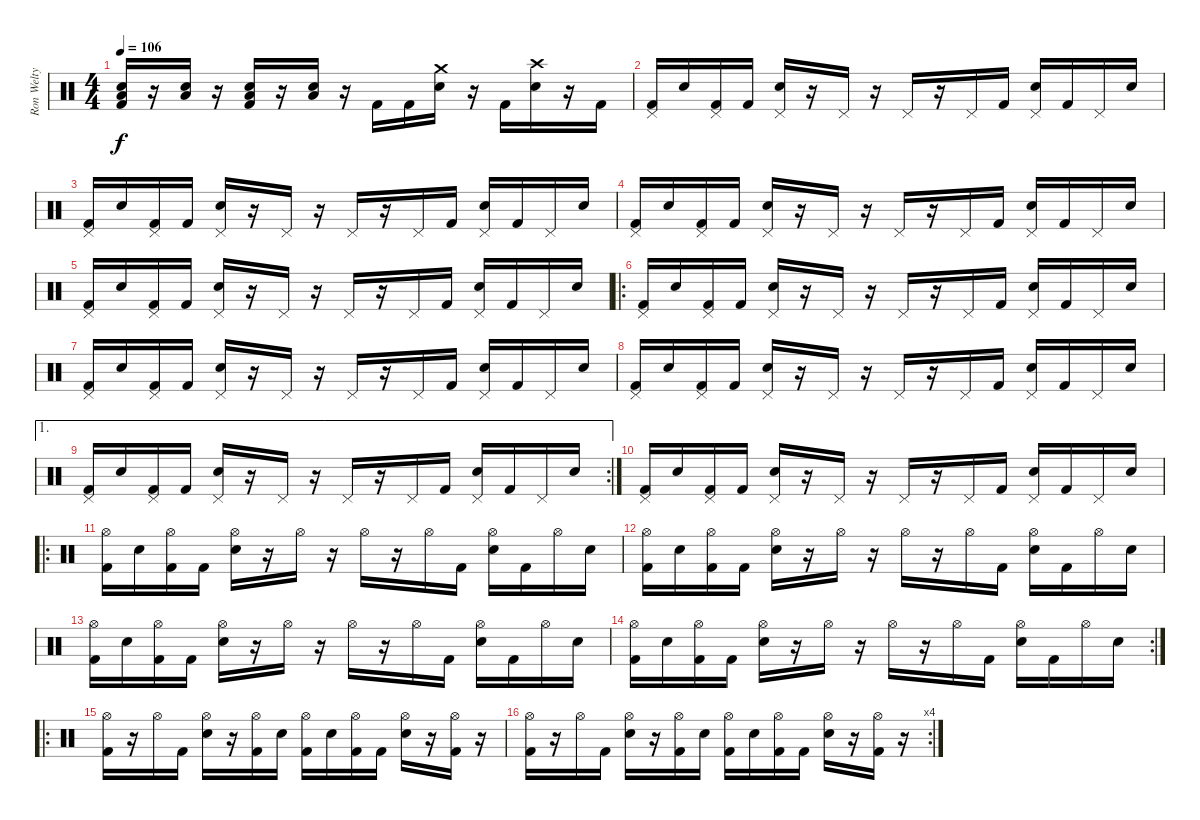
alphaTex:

\track ("Ron Welty - Drummer" "Ron Welty ") {instrument percussion}
\staff {score}
\articulation defaults
\ts (4 4)
\tempo 106
\clef neutral
\ks c
("Kick (hit) 2" "Low Floor Tom (hit)" "Electric Snare (hit)").16{dy f} r.16 ("Low Floor Tom (hit)" "Electric Snare (hit)").16 r.16 ("Kick (hit) 2" "Low Floor Tom (hit)" "Electric Snare (hit)").16 r.16 ("Low Floor Tom (hit)" "Electric Snare (hit)").16 r.16 "Kick (hit) 2".16 "Kick (hit) 2".16 ("Electric Snare (hit)" "Crash medium (hit)").16 r.16 "Kick (hit) 2".16 ("Electric Snare (hit)" "Crash high (hit)").16 r.16 "Kick (hit) 2".16 |
("Kick (hit) 2" "Pedal Hi-Hat (hit)").16 "Electric Snare (hit)".16 ("Kick (hit) 2" "Pedal Hi-Hat (hit)").16 "Kick (hit) 2".16 ("Electric Snare (hit)" "Pedal Hi-Hat (hit)").16 r.16 "Pedal Hi-Hat (hit)".16 r.16 "Pedal Hi-Hat (hit)".16 r.16 "Pedal Hi-Hat (hit)".16 "Kick (hit) 2".16 ("Electric Snare (hit)" "Pedal Hi-Hat (hit)").16 "Kick (hit) 2".16 "Pedal Hi-Hat (hit)".16 "Electric Snare (hit)".16 |
("Kick (hit) 2" "Pedal Hi-Hat (hit)").16 "Electric Snare (hit)".16 ("Kick (hit) 2" "Pedal Hi-Hat (hit)").16 "Kick (hit) 2".16 ("Electric Snare (hit)" "Pedal Hi-Hat (hit)").16 r.16 "Pedal Hi-Hat (hit)".16 r.16 "Pedal Hi-Hat (hit)".16 r.16 "Pedal Hi-Hat (hit)".16 "Kick (hit) 2".16 ("Electric Snare (hit)" "Pedal Hi-Hat (hit)").16 "Kick (hit) 2".16 "Pedal Hi-Hat (hit)".16 "Electric Snare (hit)".16 |
("Kick (hit) 2" "Pedal Hi-Hat (hit)").16 "Electric Snare (hit)".16 ("Kick (hit) 2" "Pedal Hi-Hat (hit)").16 "Kick (hit) 2".16 ("Electric Snare (hit)" "Pedal Hi-Hat (hit)").16 r.16 "Pedal Hi-Hat (hit)".16 r.16 "Pedal Hi-Hat (hit)".16 r.16 "Pedal Hi-Hat (hit)".16 "Kick (hit) 2".16 ("Electric Snare (hit)" "Pedal Hi-Hat (hit)").16 "Kick (hit) 2".16 "Pedal Hi-Hat (hit)".16 "Electric Snare (hit)".16 |
("Kick (hit) 2" "Pedal Hi-Hat (hit)").16 "Electric Snare (hit)".16 ("Kick (hit) 2" "Pedal Hi-Hat (hit)").16 "Kick (hit) 2".16 ("Electric Snare (hit)" "Pedal Hi-Hat (hit)").16 r.16 "Pedal Hi-Hat (hit)".16 r.16 "Pedal Hi-Hat (hit)".16 r.16 "Pedal Hi-Hat (hit)".16 "Kick (hit) 2".16 ("Electric Snare (hit)" "Pedal Hi-Hat (hit)").16 "Kick (hit) 2".16 "Pedal Hi-Hat (hit)".16 "Electric Snare (hit)".16 |
\ro
("Kick (hit) 2" "Pedal Hi-Hat (hit)").16 "Electric Snare (hit)".16 ("Kick (hit) 2" "Pedal Hi-Hat (hit)").16 "Kick (hit) 2".16 ("Electric Snare (hit)" "Pedal Hi-Hat (hit)").16 r.16 "Pedal Hi-Hat (hit)".16 r.16 "Pedal Hi-Hat (hit)".16 r.16 "Pedal Hi-Hat (hit)".16 "Kick (hit) 2".16 ("Electric Snare (hit)" "Pedal Hi-Hat (hit)").16 "Kick (hit) 2".16 "Pedal Hi-Hat (hit)".16 "Electric Snare (hit)".16 |
("Kick (hit) 2" "Pedal Hi-Hat (hit)").16 "Electric Snare (hit)".16 ("Kick (hit) 2" "Pedal Hi-Hat (hit)").16 "Kick (hit) 2".16 ("Electric Snare (hit)" "Pedal Hi-Hat (hit)").16 r.16 "Pedal Hi-Hat (hit)".16 r.16 "Pedal Hi-Hat (hit)".16 r.16 "Pedal Hi-Hat (hit)".16 "Kick (hit) 2".16 ("Electric Snare (hit)" "Pedal Hi-Hat (hit)").16 "Kick (hit) 2".16 "Pedal Hi-Hat (hit)".16 "Electric Snare (hit)".16 |
("Kick (hit) 2" "Pedal Hi-Hat (hit)").16 "Electric Snare (hit)".16 ("Kick (hit) 2" "Pedal Hi-Hat (hit)").16 "Kick (hit) 2".16 ("Electric Snare (hit)" "Pedal Hi-Hat (hit)").16 r.16 "Pedal Hi-Hat (hit)".16 r.16 "Pedal Hi-Hat (hit)".16 r.16 "Pedal Hi-Hat (hit)".16 "Kick (hit) 2".16 ("Electric Snare (hit)" "Pedal Hi-Hat (hit)").16 "Kick (hit) 2".16 "Pedal Hi-Hat (hit)".16 "Electric Snare (hit)".16 |
\ae 1
\rc 2
("Kick (hit) 2" "Pedal Hi-Hat (hit)").16 "Electric Snare (hit)".16 ("Kick (hit) 2" "Pedal Hi-Hat (hit)").16 "Kick (hit) 2".16 ("Electric Snare (hit)" "Pedal Hi-Hat (hit)").16 r.16 "Pedal Hi-Hat (hit)".16 r.16 "Pedal Hi-Hat (hit)".16 r.16 "Pedal Hi-Hat (hit)".16 "Kick (hit) 2".16 ("Electric Snare (hit)" "Pedal Hi-Hat (hit)").16 "Kick (hit) 2".16 "Pedal Hi-Hat (hit)".16 "Electric Snare (hit)".16 |
("Kick (hit) 2" "Pedal Hi-Hat (hit)").16 "Electric Snare (hit)".16 ("Kick (hit) 2" "Pedal Hi-Hat (hit)").16 "Kick (hit) 2".16 ("Electric Snare (hit)" "Pedal Hi-Hat (hit)").16 r.16 "Pedal Hi-Hat (hit)".16 r.16 "Pedal Hi-Hat (hit)".16 r.16 "Pedal Hi-Hat (hit)".16 "Kick (hit) 2".16 ("Electric Snare (hit)" "Pedal Hi-Hat (hit)").16 "Kick (hit) 2".16 "Pedal Hi-Hat (hit)".16 "Electric Snare (hit)".16 |
\ro
("Kick (hit) 2" "Hi-Hat (open)").16 "Electric Snare (hit)".16 ("Kick (hit) 2" "Hi-Hat (open)").16 "Kick (hit) 2".16 ("Electric Snare (hit)" "Hi-Hat (open)").16 r.16 "Hi-Hat (open)".16 r.16 "Hi-Hat (open)".16 r.16 "Hi-Hat (open)".16 "Kick (hit) 2".16 ("Electric Snare (hit)" "Hi-Hat (open)").16 "Kick (hit) 2".16 "Hi-Hat (open)".16 "Electric Snare (hit)".16 |
("Kick (hit) 2" "Hi-Hat (open)").16 "Electric Snare (hit)".16 ("Kick (hit) 2" "Hi-Hat (open)").16 "Kick (hit) 2".16 ("Electric Snare (hit)" "Hi-Hat (open)").16 r.16 "Hi-Hat (open)".16 r.16 "Hi-Hat (open)".16 r.16 "Hi-Hat (open)".16 "Kick (hit) 2".16 ("Electric Snare (hit)" "Hi-Hat (open)").16 "Kick (hit) 2".16 "Hi-Hat (open)".16 "Electric Snare (hit)".16 |
("Kick (hit) 2" "Hi-Hat (open)").16 "Electric Snare (hit)".16 ("Kick (hit) 2" "Hi-Hat (open)").16 "Kick (hit) 2".16 ("Electric Snare (hit)" "Hi-Hat (open)").16 r.16 "Hi-Hat (open)".16 r.16 "Hi-Hat (open)".16 r.16 "Hi-Hat (open)".16 "Kick (hit) 2".16 ("Electric Snare (hit)" "Hi-Hat (open)").16 "Kick (hit) 2".16 "Hi-Hat (open)".16 "Electric Snare (hit)".16 |
\rc 2
("Kick (hit) 2" "Hi-Hat (open)").16 "Electric Snare (hit)".16 ("Kick (hit) 2" "Hi-Hat (open)").16 "Kick (hit) 2".16 ("Electric Snare (hit)" "Hi-Hat (open)").16 r.16 "Hi-Hat (open)".16 r.16 "Hi-Hat (open)".16 r.16 "Hi-Hat (open)".16 "Kick (hit) 2".16 ("Electric Snare (hit)" "Hi-Hat (open)").16 "Kick (hit) 2".16 "Hi-Hat (open)".16 "Electric Snare (hit)".16 |
\ro
("Hi-Hat (open)" "Kick (hit) 2").16 r.16 "Hi-Hat (open)".16 "Kick (hit) 2".16 ("Hi-Hat (open)" "Electric Snare (hit)").16 r.16 ("Hi-Hat (open)" "Kick (hit) 2").16 "Electric Snare (hit)".16 ("Hi-Hat (open)" "Kick (hit) 2").16 "Electric Snare (hit)".16 ("Hi-Hat (open)" "Kick (hit) 2").16 "Kick (hit) 2".16 ("Hi-Hat (open)" "Electric Snare (hit)").16 r.16 ("Hi-Hat (open)" "Kick (hit) 2").16 r.16 |
\rc 4
("Kick (hit) 2" "Hi-Hat (open)").16 r.16 "Hi-Hat (open)".16 "Kick (hit) 2".16 ("Hi-Hat (open)" "Electric Snare (hit)").16 r.16 ("Hi-Hat (open)" "Kick (hit) 2").16 "Electric Snare (hit)".16 ("Hi-Hat (open)" "Kick (hit) 2").16 "Electric Snare (hit)".16 ("Hi-Hat (open)" "Kick (hit) 2").16 "Kick (hit) 2".16 ("Hi-Hat (open)" "Electric Snare (hit)").16 r.16 ("Hi-Hat (open)" "Kick (hit) 2").16 r.16
